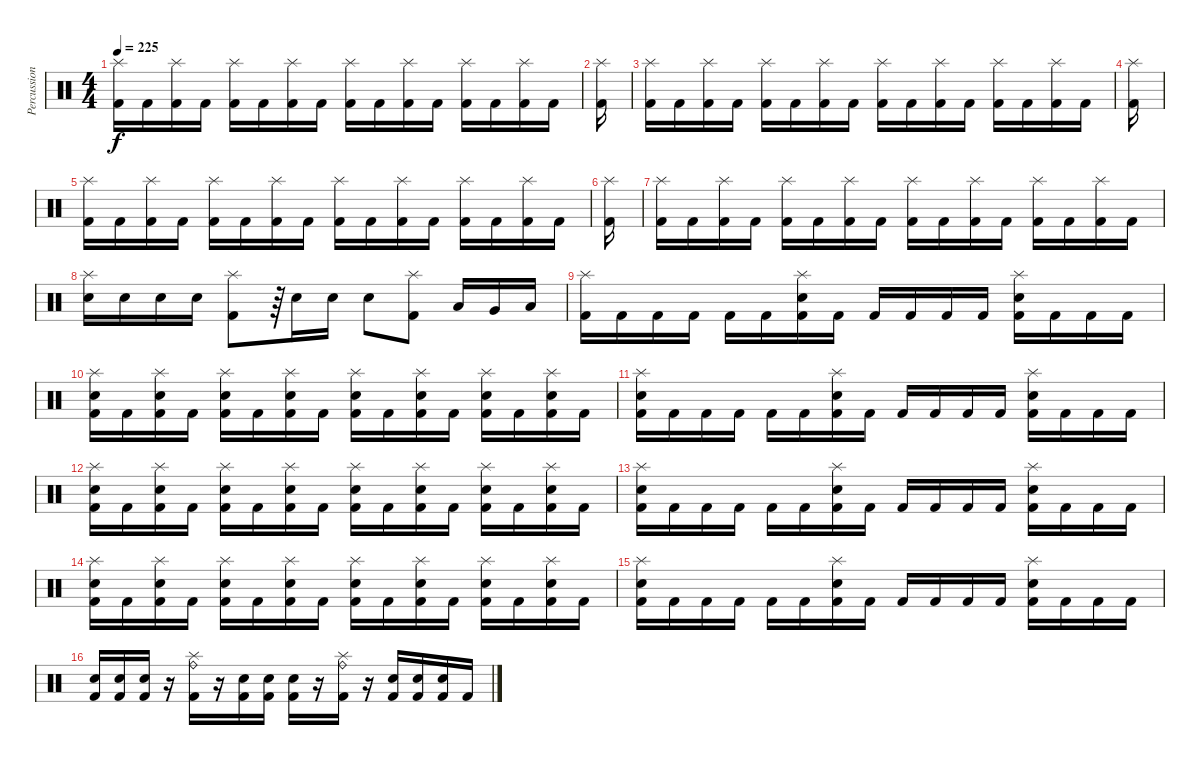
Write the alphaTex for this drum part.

\track ("Percussion" "Percussion") {instrument percussion}
\staff {score}
\articulation defaults
\ts (4 4)
\tempo 225
\clef neutral
\ks c
("Splash (hit)" "Kick (hit) 2").16{dy f} "Kick (hit) 2".16 ("Splash (hit)" "Kick (hit) 2").16 "Kick (hit) 2".16 ("Splash (hit)" "Kick (hit) 2").16 "Kick (hit) 2".16 ("Splash (hit)" "Kick (hit) 2").16 "Kick (hit) 2".16 ("Splash (hit)" "Kick (hit) 2").16 "Kick (hit) 2".16 ("Splash (hit)" "Kick (hit) 2").16 "Kick (hit) 2".16 ("Splash (hit)" "Kick (hit) 2").16 "Kick (hit) 2".16 ("Splash (hit)" "Kick (hit) 2").16 "Kick (hit) 2".16 |
("Splash (hit)" "Kick (hit) 2").16 |
("Splash (hit)" "Kick (hit) 2").16 "Kick (hit) 2".16 ("Splash (hit)" "Kick (hit) 2").16 "Kick (hit) 2".16 ("Splash (hit)" "Kick (hit) 2").16 "Kick (hit) 2".16 ("Splash (hit)" "Kick (hit) 2").16 "Kick (hit) 2".16 ("Splash (hit)" "Kick (hit) 2").16 "Kick (hit) 2".16 ("Splash (hit)" "Kick (hit) 2").16 "Kick (hit) 2".16 ("Splash (hit)" "Kick (hit) 2").16 "Kick (hit) 2".16 ("Splash (hit)" "Kick (hit) 2").16 "Kick (hit) 2".16 |
("Splash (hit)" "Kick (hit) 2").16 |
("Splash (hit)" "Kick (hit) 2").16 "Kick (hit) 2".16 ("Splash (hit)" "Kick (hit) 2").16 "Kick (hit) 2".16 ("Splash (hit)" "Kick (hit) 2").16 "Kick (hit) 2".16 ("Splash (hit)" "Kick (hit) 2").16 "Kick (hit) 2".16 ("Splash (hit)" "Kick (hit) 2").16 "Kick (hit) 2".16 ("Splash (hit)" "Kick (hit) 2").16 "Kick (hit) 2".16 ("Splash (hit)" "Kick (hit) 2").16 "Kick (hit) 2".16 ("Splash (hit)" "Kick (hit) 2").16 "Kick (hit) 2".16 |
("Splash (hit)" "Kick (hit) 2").16 |
("Splash (hit)" "Kick (hit) 2").16 "Kick (hit) 2".16 ("Splash (hit)" "Kick (hit) 2").16 "Kick (hit) 2".16 ("Splash (hit)" "Kick (hit) 2").16 "Kick (hit) 2".16 ("Splash (hit)" "Kick (hit) 2").16 "Kick (hit) 2".16 ("Splash (hit)" "Kick (hit) 2").16 "Kick (hit) 2".16 ("Splash (hit)" "Kick (hit) 2").16 "Kick (hit) 2".16 ("Splash (hit)" "Kick (hit) 2").16 "Kick (hit) 2".16 ("Splash (hit)" "Kick (hit) 2").16 "Kick (hit) 2".16 |
("Splash (hit)" "Snare (hit) 2").16 "Snare (hit) 2".16 "Snare (hit) 2".16 "Snare (hit)".16 ("Splash (hit)" "Kick (hit) 2").8 r.64 "Snare (hit) 2".16 "Snare (hit) 2".16 "Snare (hit) 2".8 ("Splash (hit)" "Kick (hit) 2").8 "Low Tom (hit)".16 "Very Low Tom (hit)".16 "Low Floor Tom (hit)".16 |
("Splash (hit)" "Kick (hit) 2").16 "Kick (hit) 2".16 "Kick (hit) 2".16 "Kick (hit) 2".16 "Kick (hit) 2".16 "Kick (hit) 2".16 ("Splash (hit)" "Snare (hit) 2" "Kick (hit) 2").16 "Kick (hit) 2".16 "Kick (hit) 2".16 "Kick (hit) 2".16 "Kick (hit) 2".16 "Kick (hit) 2".16 ("Splash (hit)" "Snare (hit) 2" "Kick (hit) 2").16 "Kick (hit) 2".16 "Kick (hit) 2".16 "Kick (hit) 2".16 |
("Splash (hit)" "Snare (hit) 2" "Kick (hit) 2").16 "Kick (hit) 2".16 ("Splash (hit)" "Snare (hit) 2" "Kick (hit) 2").16 "Kick (hit) 2".16 ("Splash (hit)" "Snare (hit) 2" "Kick (hit) 2").16 "Kick (hit) 2".16 ("Splash (hit)" "Snare (hit) 2" "Kick (hit) 2").16 "Kick (hit) 2".16 ("Splash (hit)" "Snare (hit) 2" "Kick (hit) 2").16 "Kick (hit) 2".16 ("Splash (hit)" "Snare (hit) 2" "Kick (hit) 2").16 "Kick (hit) 2".16 ("Splash (hit)" "Snare (hit) 2" "Kick (hit) 2").16 "Kick (hit) 2".16 ("Splash (hit)" "Snare (hit) 2" "Kick (hit) 2").16 "Kick (hit) 2".16 |
("Splash (hit)" "Snare (hit) 2" "Kick (hit) 2").16 "Kick (hit) 2".16 "Kick (hit) 2".16 "Kick (hit) 2".16 "Kick (hit) 2".16 "Kick (hit) 2".16 ("Splash (hit)" "Snare (hit) 2" "Kick (hit) 2").16 "Kick (hit) 2".16 "Kick (hit) 2".16 "Kick (hit) 2".16 "Kick (hit) 2".16 "Kick (hit) 2".16 ("Splash (hit)" "Snare (hit) 2" "Kick (hit) 2").16 "Kick (hit) 2".16 "Kick (hit) 2".16 "Kick (hit) 2".16 |
("Splash (hit)" "Snare (hit) 2" "Kick (hit) 2").16 "Kick (hit) 2".16 ("Splash (hit)" "Snare (hit) 2" "Kick (hit) 2").16 "Kick (hit) 2".16 ("Splash (hit)" "Snare (hit) 2" "Kick (hit) 2").16 "Kick (hit) 2".16 ("Splash (hit)" "Snare (hit) 2" "Kick (hit) 2").16 "Kick (hit) 2".16 ("Splash (hit)" "Snare (hit) 2" "Kick (hit) 2").16 "Kick (hit) 2".16 ("Splash (hit)" "Snare (hit) 2" "Kick (hit) 2").16 "Kick (hit) 2".16 ("Splash (hit)" "Snare (hit) 2" "Kick (hit) 2").16 "Kick (hit) 2".16 ("Splash (hit)" "Snare (hit) 2" "Kick (hit) 2").16 "Kick (hit) 2".16 |
("Splash (hit)" "Snare (hit) 2" "Kick (hit) 2").16 "Kick (hit) 2".16 "Kick (hit) 2".16 "Kick (hit) 2".16 "Kick (hit) 2".16 "Kick (hit) 2".16 ("Splash (hit)" "Snare (hit) 2" "Kick (hit) 2").16 "Kick (hit) 2".16 "Kick (hit) 2".16 "Kick (hit) 2".16 "Kick (hit) 2".16 "Kick (hit) 2".16 ("Splash (hit)" "Snare (hit) 2" "Kick (hit) 2").16 "Kick (hit) 2".16 "Kick (hit) 2".16 "Kick (hit) 2".16 |
("Splash (hit)" "Snare (hit) 2" "Kick (hit) 2").16 "Kick (hit) 2".16 ("Splash (hit)" "Snare (hit) 2" "Kick (hit) 2").16 "Kick (hit) 2".16 ("Splash (hit)" "Snare (hit) 2" "Kick (hit) 2").16 "Kick (hit) 2".16 ("Splash (hit)" "Snare (hit) 2" "Kick (hit) 2").16 "Kick (hit) 2".16 ("Splash (hit)" "Snare (hit) 2" "Kick (hit) 2").16 "Kick (hit) 2".16 ("Splash (hit)" "Snare (hit) 2" "Kick (hit) 2").16 "Kick (hit) 2".16 ("Splash (hit)" "Snare (hit) 2" "Kick (hit) 2").16 "Kick (hit) 2".16 ("Splash (hit)" "Snare (hit) 2" "Kick (hit) 2").16 "Kick (hit) 2".16 |
("Splash (hit)" "Snare (hit) 2" "Kick (hit) 2").16 "Kick (hit) 2".16 "Kick (hit) 2".16 "Kick (hit) 2".16 "Kick (hit) 2".16 "Kick (hit) 2".16 ("Splash (hit)" "Snare (hit) 2" "Kick (hit) 2").16 "Kick (hit) 2".16 "Kick (hit) 2".16 "Kick (hit) 2".16 "Kick (hit) 2".16 "Kick (hit) 2".16 ("Splash (hit)" "Snare (hit) 2" "Kick (hit) 2").16 "Kick (hit) 2".16 "Kick (hit) 2".16 "Kick (hit) 2".16 |
("Snare (hit) 2" "Kick (hit) 2").16 ("Snare (hit) 2" "Kick (hit) 2").16 ("Snare (hit) 2" "Kick (hit) 2").16 r.16 ("Splash (hit)" "Ride (bell)" "Kick (hit) 2").16 r.16 ("Snare (hit) 2" "Kick (hit) 2").16 ("Snare (hit) 2" "Kick (hit) 2").16 ("Snare (hit) 2" "Kick (hit) 2").16 r.16 ("Ride (bell)" "Splash (hit)" "Kick (hit) 2").16 r.16 ("Snare (hit) 2" "Kick (hit) 2").16 ("Snare (hit) 2" "Kick (hit) 2").16 ("Snare (hit) 2" "Kick (hit) 2").16 "Kick (hit) 2".16
